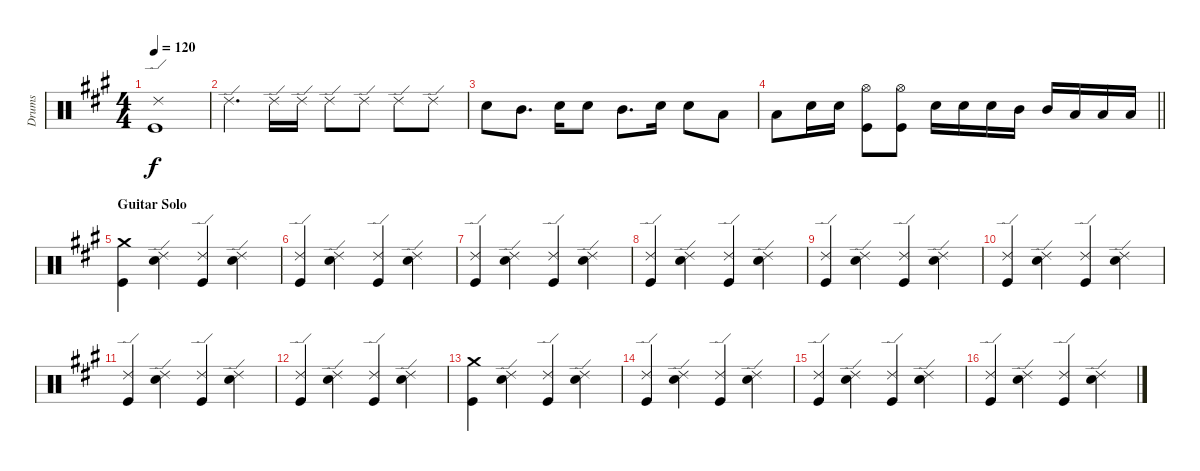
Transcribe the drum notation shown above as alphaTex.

\track ("Drums" "Drums") {instrument percussion}
\staff {score}
\articulation defaults
\ts (4 4)
\tempo 120
\clef neutral
\ks f#minor
("Ride (edge) 2" "Kick (hit)").1{dy f} |
"Ride (edge) 2".4{d} "Ride (edge) 2".16 "Ride (edge) 2".16 "Ride (edge) 2".8 "Ride (edge) 2".8 "Ride (edge) 2".8 "Ride (edge) 2".8 |
"Electric Snare (hit)".8 "Mid Tom (hit)".8{d} "Electric Snare (hit)".16 "Electric Snare (hit)".8 "Mid Tom (hit)".8{d} "Electric Snare (hit)".16 "Electric Snare (hit)".8 "Low Tom (hit)".8 |
\barLineRight lightlight "Low Tom (hit)".8 "Electric Snare (hit)".16 "Electric Snare (hit)".16
("Hi-Hat (open)" "Kick (hit)").8 ("Hi-Hat (open)" "Kick (hit)").8 "Electric Snare (hit)".16 "Electric Snare (hit)".16 "Electric Snare (hit)".16 "Mid Tom (hit)".16 "Mid Tom (hit)".16 "Low Tom (hit)".16 "Low Tom (hit)".16 "Low Tom (hit)".16 |
\section ("" "Guitar Solo")
("Crash medium (hit)" "Kick (hit)").4 ("Ride (edge) 2" "Electric Snare (hit)").4 ("Ride (edge) 2" "Kick (hit)").4 ("Ride (edge) 2" "Electric Snare (hit)").4 |
("Ride (edge) 2" "Kick (hit)").4 ("Ride (edge) 2" "Electric Snare (hit)").4 ("Ride (edge) 2" "Kick (hit)").4 ("Ride (edge) 2" "Electric Snare (hit)").4 |
("Ride (edge) 2" "Kick (hit)").4 ("Ride (edge) 2" "Electric Snare (hit)").4 ("Ride (edge) 2" "Kick (hit)").4 ("Ride (edge) 2" "Electric Snare (hit)").4 |
("Ride (edge) 2" "Kick (hit)").4 ("Ride (edge) 2" "Electric Snare (hit)").4 ("Ride (edge) 2" "Kick (hit)").4 ("Ride (edge) 2" "Electric Snare (hit)").4 |
("Ride (edge) 2" "Kick (hit)").4 ("Ride (edge) 2" "Electric Snare (hit)").4 ("Ride (edge) 2" "Kick (hit)").4 ("Ride (edge) 2" "Electric Snare (hit)").4 |
("Ride (edge) 2" "Kick (hit)").4 ("Ride (edge) 2" "Electric Snare (hit)").4 ("Ride (edge) 2" "Kick (hit)").4 ("Ride (edge) 2" "Electric Snare (hit)").4 |
("Ride (edge) 2" "Kick (hit)").4 ("Ride (edge) 2" "Electric Snare (hit)").4 ("Ride (edge) 2" "Kick (hit)").4 ("Ride (edge) 2" "Electric Snare (hit)").4 |
("Ride (edge) 2" "Kick (hit)").4 ("Ride (edge) 2" "Electric Snare (hit)").4 ("Ride (edge) 2" "Kick (hit)").4 ("Ride (edge) 2" "Electric Snare (hit)").4 |
("Crash medium (hit)" "Kick (hit)").4 ("Ride (edge) 2" "Electric Snare (hit)").4 ("Ride (edge) 2" "Kick (hit)").4 ("Ride (edge) 2" "Electric Snare (hit)").4 |
("Ride (edge) 2" "Kick (hit)").4 ("Ride (edge) 2" "Electric Snare (hit)").4 ("Ride (edge) 2" "Kick (hit)").4 ("Ride (edge) 2" "Electric Snare (hit)").4 |
("Ride (edge) 2" "Kick (hit)").4 ("Ride (edge) 2" "Electric Snare (hit)").4 ("Ride (edge) 2" "Kick (hit)").4 ("Ride (edge) 2" "Electric Snare (hit)").4 |
("Ride (edge) 2" "Kick (hit)").4 ("Ride (edge) 2" "Electric Snare (hit)").4 ("Ride (edge) 2" "Kick (hit)").4 ("Ride (edge) 2" "Electric Snare (hit)").4
